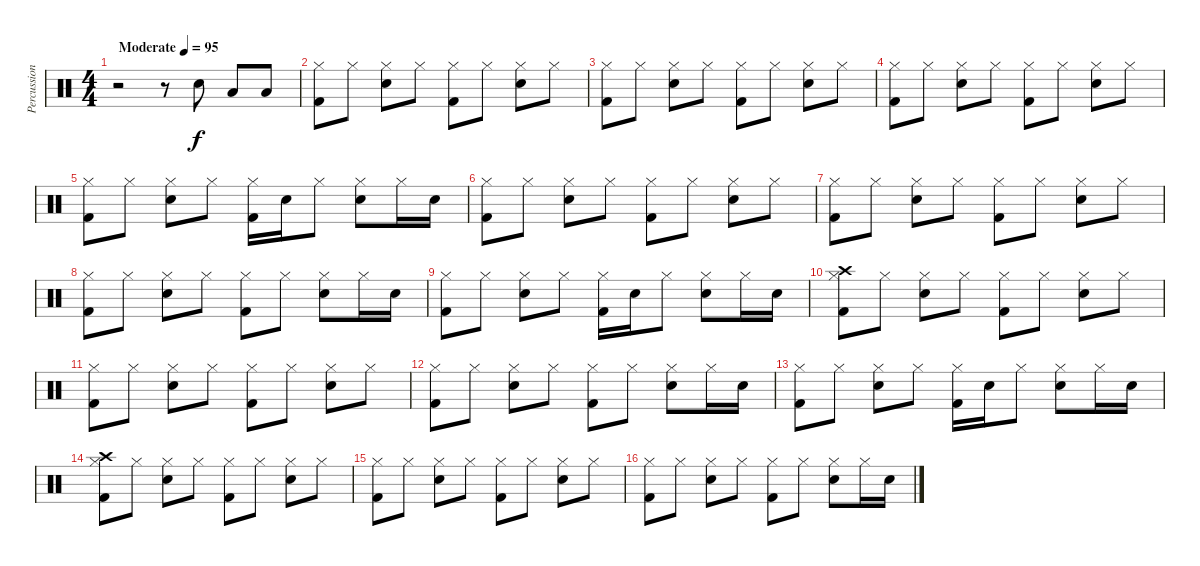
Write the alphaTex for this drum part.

\track ("Percussion" "Percussion") {instrument percussion}
\staff {score}
\articulation defaults
\ts (4 4)
\tempo (95 "Moderate")
\clef neutral
\ks c
r.2{dy f} r.8 "Electric Snare (hit)".8 "Low Tom (hit)".8 "Low Floor Tom (hit)".8 |
("Hi-Hat (closed)" "Kick (hit) 2").8 "Hi-Hat (closed)".8 ("Hi-Hat (closed)" "Electric Snare (hit)").8 "Hi-Hat (closed)".8 ("Hi-Hat (closed)" "Kick (hit) 2").8 "Hi-Hat (closed)".8 ("Hi-Hat (closed)" "Electric Snare (hit)").8 "Hi-Hat (closed)".8 |
("Hi-Hat (closed)" "Kick (hit) 2").8 "Hi-Hat (closed)".8 ("Hi-Hat (closed)" "Electric Snare (hit)").8 "Hi-Hat (closed)".8 ("Hi-Hat (closed)" "Kick (hit) 2").8 "Hi-Hat (closed)".8 ("Hi-Hat (closed)" "Electric Snare (hit)").8 "Hi-Hat (closed)".8 |
("Hi-Hat (closed)" "Kick (hit) 2").8 "Hi-Hat (closed)".8 ("Hi-Hat (closed)" "Electric Snare (hit)").8 "Hi-Hat (closed)".8 ("Hi-Hat (closed)" "Kick (hit) 2").8 "Hi-Hat (closed)".8 ("Hi-Hat (closed)" "Electric Snare (hit)").8 "Hi-Hat (closed)".8 |
("Hi-Hat (closed)" "Kick (hit) 2").8 "Hi-Hat (closed)".8 ("Hi-Hat (closed)" "Electric Snare (hit)").8 "Hi-Hat (closed)".8 ("Hi-Hat (closed)" "Kick (hit) 2").16 "Electric Snare (hit)".16 "Hi-Hat (closed)".8 ("Hi-Hat (closed)" "Electric Snare (hit)").8 "Hi-Hat (closed)".16 "Electric Snare (hit)".16 |
("Hi-Hat (closed)" "Kick (hit) 2").8 "Hi-Hat (closed)".8 ("Hi-Hat (closed)" "Electric Snare (hit)").8 "Hi-Hat (closed)".8 ("Hi-Hat (closed)" "Kick (hit) 2").8 "Hi-Hat (closed)".8 ("Hi-Hat (closed)" "Electric Snare (hit)").8 "Hi-Hat (closed)".8 |
("Hi-Hat (closed)" "Kick (hit) 2").8 "Hi-Hat (closed)".8 ("Hi-Hat (closed)" "Electric Snare (hit)").8 "Hi-Hat (closed)".8 ("Hi-Hat (closed)" "Kick (hit) 2").8 "Hi-Hat (closed)".8 ("Hi-Hat (closed)" "Electric Snare (hit)").8 "Hi-Hat (closed)".8 |
("Hi-Hat (closed)" "Kick (hit) 2").8 "Hi-Hat (closed)".8 ("Hi-Hat (closed)" "Electric Snare (hit)").8 "Hi-Hat (closed)".8 ("Hi-Hat (closed)" "Kick (hit) 2").8 "Hi-Hat (closed)".8 ("Hi-Hat (closed)" "Electric Snare (hit)").8 "Hi-Hat (closed)".16 "Electric Snare (hit)".16 |
("Hi-Hat (closed)" "Kick (hit) 2").8 "Hi-Hat (closed)".8 ("Hi-Hat (closed)" "Electric Snare (hit)").8 "Hi-Hat (closed)".8 ("Hi-Hat (closed)" "Kick (hit) 2").16 "Electric Snare (hit)".16 "Hi-Hat (closed)".8 ("Hi-Hat (closed)" "Electric Snare (hit)").8 "Hi-Hat (closed)".16 "Electric Snare (hit)".16 |
("Crash high (hit)" "Hi-Hat (closed)" "Kick (hit) 2").8 "Hi-Hat (closed)".8 ("Hi-Hat (closed)" "Electric Snare (hit)").8 "Hi-Hat (closed)".8 ("Hi-Hat (closed)" "Kick (hit) 2").8 "Hi-Hat (closed)".8 ("Hi-Hat (closed)" "Electric Snare (hit)").8 "Hi-Hat (closed)".8 |
("Hi-Hat (closed)" "Kick (hit) 2").8 "Hi-Hat (closed)".8 ("Hi-Hat (closed)" "Electric Snare (hit)").8 "Hi-Hat (closed)".8 ("Hi-Hat (closed)" "Kick (hit) 2").8 "Hi-Hat (closed)".8 ("Hi-Hat (closed)" "Electric Snare (hit)").8 "Hi-Hat (closed)".8 |
("Hi-Hat (closed)" "Kick (hit) 2").8 "Hi-Hat (closed)".8 ("Hi-Hat (closed)" "Electric Snare (hit)").8 "Hi-Hat (closed)".8 ("Hi-Hat (closed)" "Kick (hit) 2").8 "Hi-Hat (closed)".8 ("Hi-Hat (closed)" "Electric Snare (hit)").8 "Hi-Hat (closed)".16 "Electric Snare (hit)".16 |
("Hi-Hat (closed)" "Kick (hit) 2").8 "Hi-Hat (closed)".8 ("Hi-Hat (closed)" "Electric Snare (hit)").8 "Hi-Hat (closed)".8 ("Hi-Hat (closed)" "Kick (hit) 2").16 "Electric Snare (hit)".16 "Hi-Hat (closed)".8 ("Hi-Hat (closed)" "Electric Snare (hit)").8 "Hi-Hat (closed)".16 "Electric Snare (hit)".16 |
("Crash high (hit)" "Hi-Hat (closed)" "Kick (hit) 2").8 "Hi-Hat (closed)".8 ("Hi-Hat (closed)" "Electric Snare (hit)").8 "Hi-Hat (closed)".8 ("Hi-Hat (closed)" "Kick (hit) 2").8 "Hi-Hat (closed)".8 ("Hi-Hat (closed)" "Electric Snare (hit)").8 "Hi-Hat (closed)".8 |
("Hi-Hat (closed)" "Kick (hit) 2").8 "Hi-Hat (closed)".8 ("Hi-Hat (closed)" "Electric Snare (hit)").8 "Hi-Hat (closed)".8 ("Hi-Hat (closed)" "Kick (hit) 2").8 "Hi-Hat (closed)".8 ("Hi-Hat (closed)" "Electric Snare (hit)").8 "Hi-Hat (closed)".8 |
("Hi-Hat (closed)" "Kick (hit) 2").8 "Hi-Hat (closed)".8 ("Hi-Hat (closed)" "Electric Snare (hit)").8 "Hi-Hat (closed)".8 ("Hi-Hat (closed)" "Kick (hit) 2").8 "Hi-Hat (closed)".8 ("Hi-Hat (closed)" "Electric Snare (hit)").8 "Hi-Hat (closed)".16 "Electric Snare (hit)".16
